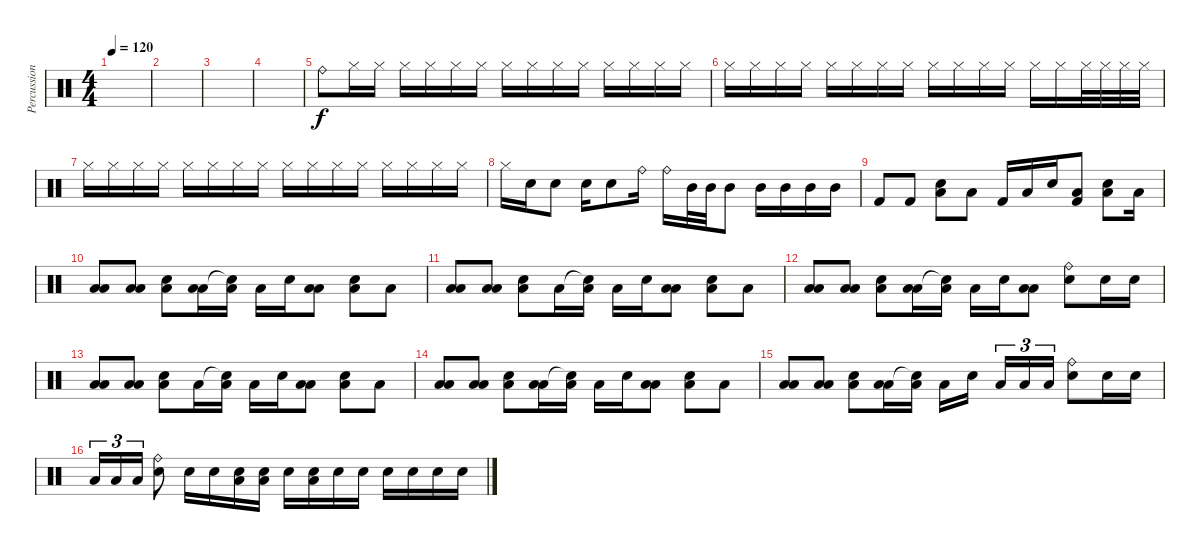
\track ("Percussion" "Percussion") {instrument percussion}
\staff {score}
\articulation defaults
\ts (4 4)
\tempo 120
\clef neutral
\ks c
|
|
|
|
"Ride (bell)".8 "Hi-Hat (closed)".16 "Hi-Hat (closed)".16 "Hi-Hat (closed)".16 "Hi-Hat (closed)".16 "Hi-Hat (closed)".16 "Hi-Hat (closed)".16 "Hi-Hat (closed)".16 "Hi-Hat (closed)".16 "Hi-Hat (closed)".16 "Hi-Hat (closed)".16 "Hi-Hat (closed)".16 "Hi-Hat (closed)".16 "Hi-Hat (closed)".16 "Hi-Hat (closed)".16 |
"Hi-Hat (closed)".16 "Hi-Hat (closed)".16 "Hi-Hat (closed)".16 "Hi-Hat (closed)".16 "Hi-Hat (closed)".16 "Hi-Hat (closed)".16 "Hi-Hat (closed)".16 "Hi-Hat (closed)".16 "Hi-Hat (closed)".16 "Hi-Hat (closed)".16 "Hi-Hat (closed)".16 "Hi-Hat (closed)".16 "Hi-Hat (closed)".16 "Hi-Hat (closed)".16 "Hi-Hat (closed)".32 "Hi-Hat (closed)".32 "Hi-Hat (closed)".32 "Hi-Hat (closed)".32 |
"Hi-Hat (closed)".16 "Hi-Hat (closed)".16 "Hi-Hat (closed)".16 "Hi-Hat (closed)".16 "Hi-Hat (closed)".16 "Hi-Hat (closed)".16 "Hi-Hat (closed)".16 "Hi-Hat (closed)".16 "Hi-Hat (closed)".16 "Hi-Hat (closed)".16 "Hi-Hat (closed)".16 "Hi-Hat (closed)".16 "Hi-Hat (closed)".16 "Hi-Hat (closed)".16 "Hi-Hat (closed)".16 "Hi-Hat (closed)".16 |
"Hi-Hat (closed)".16 "Snare (hit) 2".16 "Snare (hit) 2".8 "Snare (hit) 2".16 "Snare (hit) 2".8 "Ride (bell)".16 "Ride (bell)".16 "Mid Tom (hit)".32 "Mid Tom (hit)".32 "Mid Tom (hit)".8 "Mid Tom (hit)".16 "Mid Tom (hit)".16 "Mid Tom (hit)".16 "Mid Tom (hit)".16 |
"Kick (hit) 2".8 "Kick (hit) 2".8 ("Snare (hit) 2" "Low Tom (hit)").8 "Low Tom (hit)".8 "Kick (hit) 2".16 "Low Tom (hit)".16 "Snare (hit) 2".16 ("Low Tom (hit)" "Kick (hit) 2").8 ("Snare (hit) 2" "Low Tom (hit)").8 "Low Tom (hit)".16 |
("Low Tom (hit)" "Low Floor Tom (hit)").8 ("Low Tom (hit)" "Low Floor Tom (hit)").8 ("Snare (hit) 2" "Low Tom (hit)").8 ("Low Tom (hit)" "Low Floor Tom (hit)").16 ("Snare (hit)"{t} "Low Floor Tom (hit)").16 "Low Tom (hit)".16 "Snare (hit) 2".16 ("Low Tom (hit)" "Low Floor Tom (hit)").8 ("Snare (hit) 2" "Low Tom (hit)").8 "Low Tom (hit)".8 |
("Low Tom (hit)" "Low Floor Tom (hit)").8 ("Low Tom (hit)" "Low Floor Tom (hit)").8 ("Snare (hit) 2" "Low Tom (hit)").8 "Low Tom (hit)".16 ("Snare (hit)"{t} "Low Floor Tom (hit)").16 "Low Tom (hit)".16 "Snare (hit) 2".16 ("Low Tom (hit)" "Low Floor Tom (hit)").8 ("Snare (hit) 2" "Low Tom (hit)").8 "Low Tom (hit)".8 |
("Low Tom (hit)" "Low Floor Tom (hit)").8 ("Low Tom (hit)" "Low Floor Tom (hit)").8 ("Snare (hit) 2" "Low Tom (hit)").8 ("Low Tom (hit)" "Low Floor Tom (hit)").16 ("Snare (hit)"{t} "Low Floor Tom (hit)").16 "Low Tom (hit)".16 "Snare (hit) 2".16 ("Low Tom (hit)" "Low Floor Tom (hit)").8 ("Ride (bell)" "Snare (hit) 2").8 "Snare (hit) 2".16 "Snare (hit) 2".16 |
("Low Tom (hit)" "Low Floor Tom (hit)").8 ("Low Tom (hit)" "Low Floor Tom (hit)").8 ("Snare (hit) 2" "Low Tom (hit)").8 "Low Tom (hit)".16 ("Snare (hit)"{t} "Low Floor Tom (hit)").16 "Low Tom (hit)".16 "Snare (hit) 2".16 ("Low Tom (hit)" "Low Floor Tom (hit)").8 ("Snare (hit) 2" "Low Tom (hit)").8 "Low Tom (hit)".8 |
("Low Tom (hit)" "Low Floor Tom (hit)").8 ("Low Tom (hit)" "Low Floor Tom (hit)").8 ("Snare (hit) 2" "Low Tom (hit)").8 ("Low Tom (hit)" "Low Floor Tom (hit)").16 ("Snare (hit)"{t} "Low Floor Tom (hit)").16 "Low Tom (hit)".16 "Snare (hit) 2".16 ("Low Tom (hit)" "Low Floor Tom (hit)").8 ("Snare (hit) 2" "Low Tom (hit)").8 "Low Tom (hit)".8 |
("Low Tom (hit)" "Low Floor Tom (hit)").8 ("Low Tom (hit)" "Low Floor Tom (hit)").8 ("Snare (hit) 2" "Low Tom (hit)").8 ("Low Tom (hit)" "Low Floor Tom (hit)").16 ("Snare (hit)"{t} "Low Floor Tom (hit)").16 "Low Tom (hit)".16 "Snare (hit) 2".16 "Low Tom (hit)".16{tu (3 2)} "Low Floor Tom (hit)".16{tu (3 2)} "Low Floor Tom (hit)".16{tu (3 2)} ("Ride (bell)" "Snare (hit) 2").8 "Snare (hit) 2".16 "Snare (hit) 2".16 |
"Low Floor Tom (hit)".16{tu (3 2)} "Low Floor Tom (hit)".16{tu (3 2)} "Low Floor Tom (hit)".16{tu (3 2)} ("Ride (bell)" "Snare (hit) 2").8 "Snare (hit) 2".16 "Snare (hit) 2".16 ("Snare (hit) 2" "Low Floor Tom (hit)").16 ("Snare (hit) 2" "Low Floor Tom (hit)").16 "Snare (hit) 2".16 ("Snare (hit) 2" "Low Floor Tom (hit)").16 "Snare (hit) 2".16 "Snare (hit) 2".16 "Snare (hit) 2".16 "Snare (hit) 2".16 "Snare (hit) 2".16 "Snare (hit) 2".16
